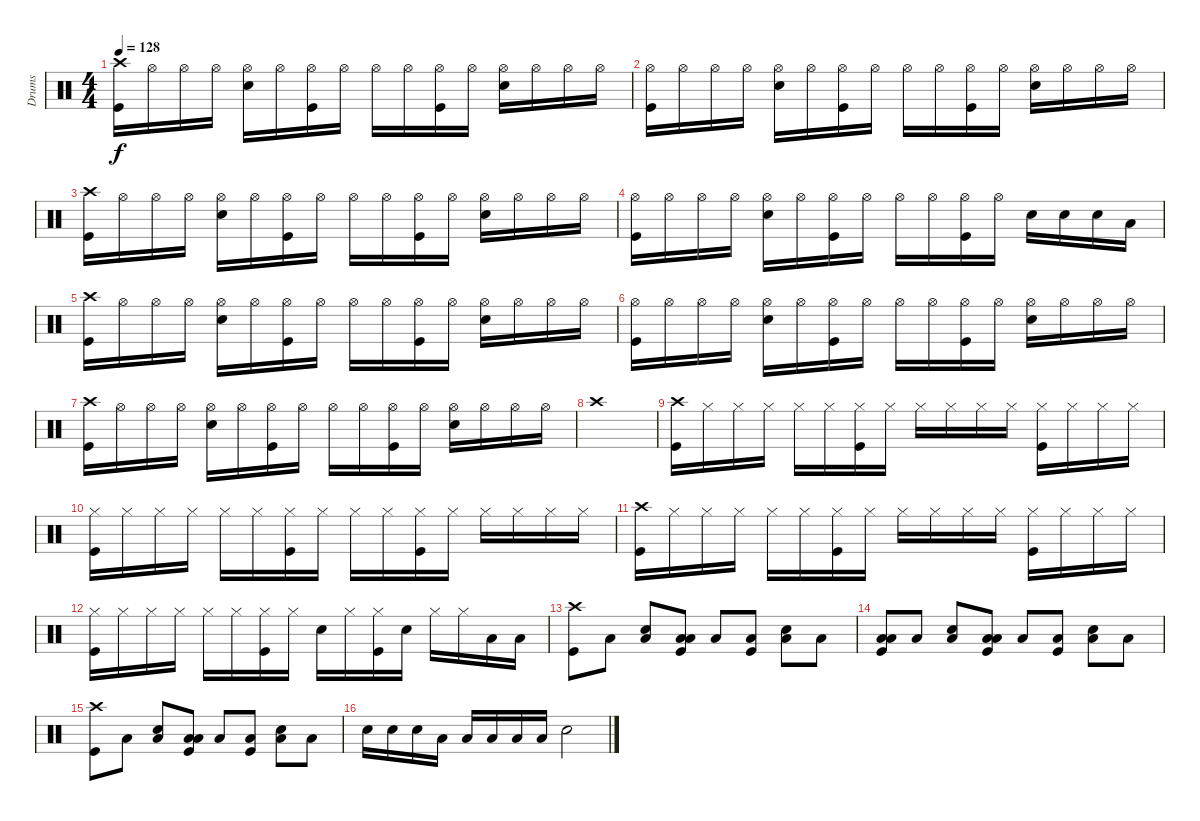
\track ("Drums" "Drums") {instrument percussion}
\staff {score}
\articulation defaults
\ts (4 4)
\tempo 128
\clef neutral
\ks c
("Kick (hit)" "Crash high (hit)").16{dy f} "Hi-Hat (open)".16 "Hi-Hat (open)".16 "Hi-Hat (open)".16 ("Snare (hit) 2" "Hi-Hat (open)").16 "Hi-Hat (open)".16 ("Kick (hit)" "Hi-Hat (open)").16 "Hi-Hat (open)".16 "Hi-Hat (open)".16 "Hi-Hat (open)".16 ("Kick (hit)" "Hi-Hat (open)").16 "Hi-Hat (open)".16 ("Snare (hit) 2" "Hi-Hat (open)").16 "Hi-Hat (open)".16 "Hi-Hat (open)".16 "Hi-Hat (open)".16 |
("Kick (hit)" "Hi-Hat (open)").16 "Hi-Hat (open)".16 "Hi-Hat (open)".16 "Hi-Hat (open)".16 ("Snare (hit) 2" "Hi-Hat (open)").16 "Hi-Hat (open)".16 ("Kick (hit)" "Hi-Hat (open)").16 "Hi-Hat (open)".16 "Hi-Hat (open)".16 "Hi-Hat (open)".16 ("Kick (hit)" "Hi-Hat (open)").16 "Hi-Hat (open)".16 ("Snare (hit) 2" "Hi-Hat (open)").16 "Hi-Hat (open)".16 "Hi-Hat (open)".16 "Hi-Hat (open)".16 |
("Kick (hit)" "Crash high (hit)").16 "Hi-Hat (open)".16 "Hi-Hat (open)".16 "Hi-Hat (open)".16 ("Snare (hit) 2" "Hi-Hat (open)").16 "Hi-Hat (open)".16 ("Kick (hit)" "Hi-Hat (open)").16 "Hi-Hat (open)".16 "Hi-Hat (open)".16 "Hi-Hat (open)".16 ("Kick (hit)" "Hi-Hat (open)").16 "Hi-Hat (open)".16 ("Snare (hit) 2" "Hi-Hat (open)").16 "Hi-Hat (open)".16 "Hi-Hat (open)".16 "Hi-Hat (open)".16 |
("Kick (hit)" "Hi-Hat (open)").16 "Hi-Hat (open)".16 "Hi-Hat (open)".16 "Hi-Hat (open)".16 ("Snare (hit) 2" "Hi-Hat (open)").16 "Hi-Hat (open)".16 ("Kick (hit)" "Hi-Hat (open)").16 "Hi-Hat (open)".16 "Hi-Hat (open)".16 "Hi-Hat (open)".16 ("Kick (hit)" "Hi-Hat (open)").16 "Hi-Hat (open)".16 "Snare (hit) 2".16 "Electric Snare (hit)".16 "Electric Snare (hit)".16 "Low Tom (hit)".16 |
("Kick (hit)" "Crash high (hit)").16 "Hi-Hat (open)".16 "Hi-Hat (open)".16 "Hi-Hat (open)".16 ("Snare (hit) 2" "Hi-Hat (open)").16 "Hi-Hat (open)".16 ("Kick (hit)" "Hi-Hat (open)").16 "Hi-Hat (open)".16 "Hi-Hat (open)".16 "Hi-Hat (open)".16 ("Kick (hit)" "Hi-Hat (open)").16 "Hi-Hat (open)".16 ("Snare (hit) 2" "Hi-Hat (open)").16 "Hi-Hat (open)".16 "Hi-Hat (open)".16 "Hi-Hat (open)".16 |
("Kick (hit)" "Hi-Hat (open)").16 "Hi-Hat (open)".16 "Hi-Hat (open)".16 "Hi-Hat (open)".16 ("Snare (hit) 2" "Hi-Hat (open)").16 "Hi-Hat (open)".16 ("Kick (hit)" "Hi-Hat (open)").16 "Hi-Hat (open)".16 "Hi-Hat (open)".16 "Hi-Hat (open)".16 ("Kick (hit)" "Hi-Hat (open)").16 "Hi-Hat (open)".16 ("Snare (hit) 2" "Hi-Hat (open)").16 "Hi-Hat (open)".16 "Hi-Hat (open)".16 "Hi-Hat (open)".16 |
("Kick (hit)" "Crash high (hit)").16 "Hi-Hat (open)".16 "Hi-Hat (open)".16 "Hi-Hat (open)".16 ("Snare (hit) 2" "Hi-Hat (open)").16 "Hi-Hat (open)".16 ("Kick (hit)" "Hi-Hat (open)").16 "Hi-Hat (open)".16 "Hi-Hat (open)".16 "Hi-Hat (open)".16 ("Kick (hit)" "Hi-Hat (open)").16 "Hi-Hat (open)".16 ("Snare (hit) 2" "Hi-Hat (open)").16 "Hi-Hat (open)".16 "Hi-Hat (open)".16 "Hi-Hat (open)".16 |
"Crash high (hit)".1 |
("Kick (hit)" "Crash high (hit)").16 "Hi-Hat (closed)".16 "Hi-Hat (closed)".16 "Hi-Hat (closed)".16 "Hi-Hat (closed)".16 "Hi-Hat (closed)".16 ("Kick (hit)" "Hi-Hat (closed)").16 "Hi-Hat (closed)".16 "Hi-Hat (closed)".16 "Hi-Hat (closed)".16 "Hi-Hat (closed)".16 "Hi-Hat (closed)".16 ("Kick (hit)" "Hi-Hat (closed)").16 "Hi-Hat (closed)".16 "Hi-Hat (closed)".16 "Hi-Hat (closed)".16 |
("Kick (hit)" "Hi-Hat (closed)").16 "Hi-Hat (closed)".16 "Hi-Hat (closed)".16 "Hi-Hat (closed)".16 "Hi-Hat (closed)".16 "Hi-Hat (closed)".16 ("Kick (hit)" "Hi-Hat (closed)").16 "Hi-Hat (closed)".16 "Hi-Hat (closed)".16 "Hi-Hat (closed)".16 ("Kick (hit)" "Hi-Hat (closed)").16 "Hi-Hat (closed)".16 "Hi-Hat (closed)".16 "Hi-Hat (closed)".16 "Hi-Hat (closed)".16 "Hi-Hat (closed)".16 |
("Kick (hit)" "Crash high (hit)").16 "Hi-Hat (closed)".16 "Hi-Hat (closed)".16 "Hi-Hat (closed)".16 "Hi-Hat (closed)".16 "Hi-Hat (closed)".16 ("Kick (hit)" "Hi-Hat (closed)").16 "Hi-Hat (closed)".16 "Hi-Hat (closed)".16 "Hi-Hat (closed)".16 "Hi-Hat (closed)".16 "Hi-Hat (closed)".16 ("Kick (hit)" "Hi-Hat (closed)").16 "Hi-Hat (closed)".16 "Hi-Hat (closed)".16 "Hi-Hat (closed)".16 |
("Kick (hit)" "Hi-Hat (closed)").16 "Hi-Hat (closed)".16 "Hi-Hat (closed)".16 "Hi-Hat (closed)".16 "Hi-Hat (closed)".16 "Hi-Hat (closed)".16 ("Kick (hit)" "Hi-Hat (closed)").16 "Hi-Hat (closed)".16 "Snare (hit) 2".16 "Hi-Hat (closed)".16 ("Kick (hit)" "Hi-Hat (closed)").16 "Snare (hit) 2".16 "Hi-Hat (closed)".16 "Hi-Hat (closed)".16 "Low Tom (hit)".16 "Low Tom (hit)".16 |
("Kick (hit)" "Crash high (hit)").8 "Low Floor Tom (hit)".8 ("Snare (hit) 2" "Low Floor Tom (hit)").8 ("Kick (hit)" "Low Floor Tom (hit)" "Low Tom (hit)").8 "Low Floor Tom (hit)".8 ("Kick (hit)" "Low Floor Tom (hit)").8 ("Snare (hit) 2" "Low Floor Tom (hit)").8 "Low Floor Tom (hit)".8 |
("Kick (hit)" "Low Floor Tom (hit)" "Low Tom (hit)").8 "Low Floor Tom (hit)".8 ("Snare (hit) 2" "Low Floor Tom (hit)").8 ("Kick (hit)" "Low Floor Tom (hit)" "Low Tom (hit)").8 "Low Floor Tom (hit)".8 ("Kick (hit)" "Low Floor Tom (hit)").8 ("Snare (hit) 2" "Low Floor Tom (hit)").8 "Low Floor Tom (hit)".8 |
("Kick (hit)" "Crash high (hit)").8 "Low Floor Tom (hit)".8 ("Snare (hit) 2" "Low Floor Tom (hit)").8 ("Kick (hit)" "Low Floor Tom (hit)" "Low Tom (hit)").8 "Low Floor Tom (hit)".8 ("Kick (hit)" "Low Floor Tom (hit)").8 ("Snare (hit) 2" "Low Floor Tom (hit)").8 "Low Floor Tom (hit)".8 |
"Snare (hit) 2".16 "Electric Snare (hit)".16 "Snare (hit) 2".16 "Low Tom (hit)".16 "Low Tom (hit)".16 "Low Tom (hit)".16 "Low Floor Tom (hit)".16 "Low Floor Tom (hit)".16 "Snare (hit) 2".2
